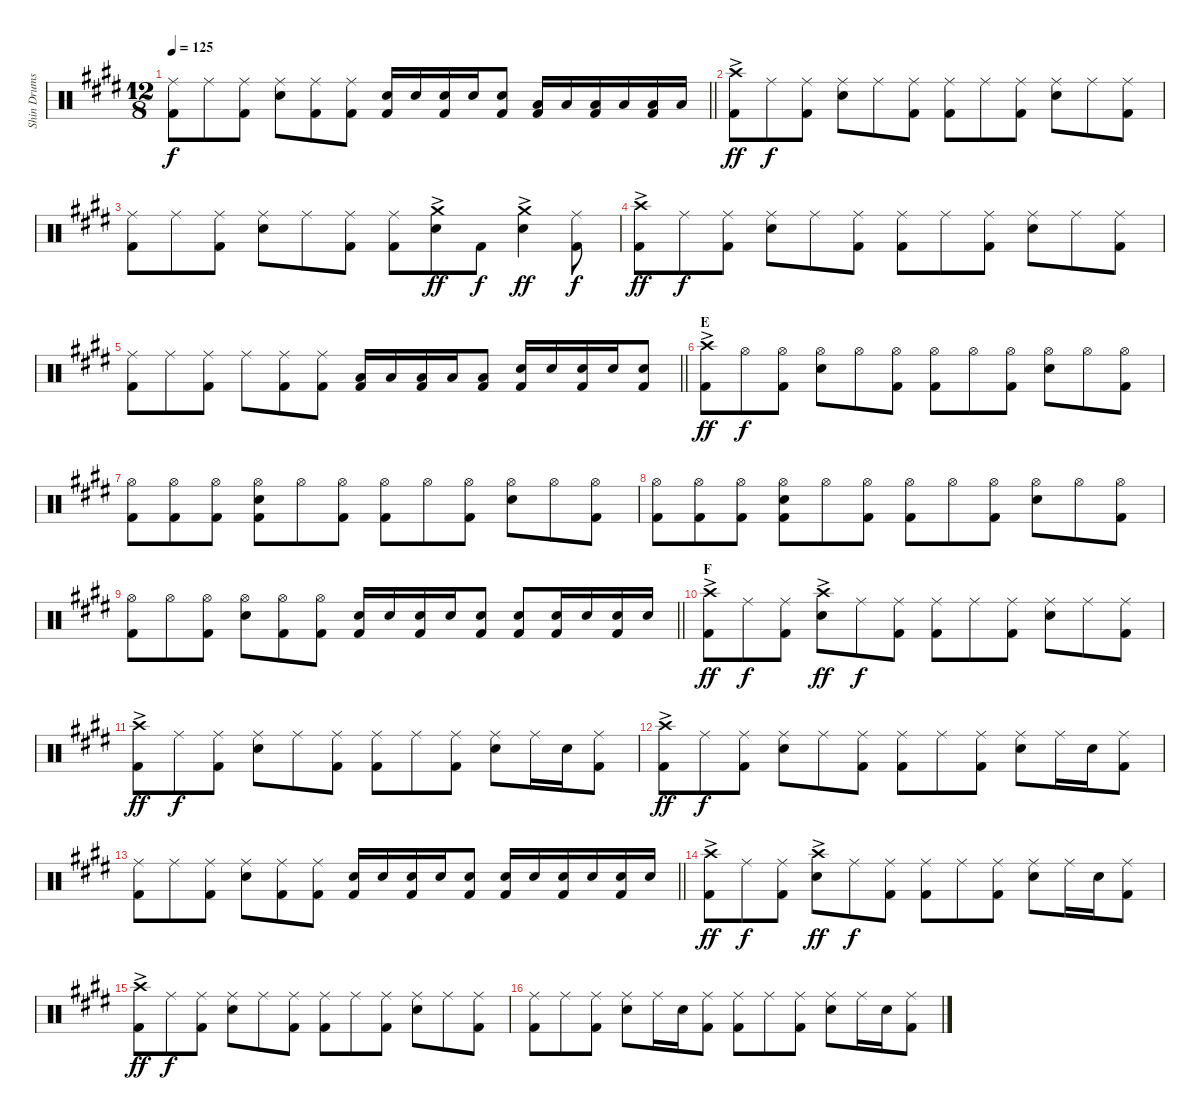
\track ("Shin Drums" "Shin Drums") {instrument percussion}
\staff {score}
\articulation defaults
\ts (12 8)
\tempo 125
\clef neutral
\barLineRight lightlight
\ks e
("Ride (middle)" "Kick (hit) 2").8{dy f} "Ride (middle)".8 ("Ride (middle)" "Kick (hit) 2").8 ("Ride (middle)" "Snare (hit) 2").8 ("Ride (middle)" "Kick (hit) 2").8 ("Ride (middle)" "Kick (hit) 2").8 ("Snare (hit) 2" "Kick (hit) 2").16 "Snare (hit) 2".16 ("Snare (hit) 2" "Kick (hit) 2").16 "Snare (hit) 2".16 ("Snare (hit) 2" "Kick (hit) 2").8 ("Low Tom (hit)" "Kick (hit) 2").16 "Low Tom (hit)".16 ("Low Tom (hit)" "Kick (hit) 2").16 "Low Tom (hit)".16 ("Low Tom (hit)" "Kick (hit) 2").16 "Low Tom (hit)".16 |
("Crash high (hit)"{ac} "Kick (hit) 2").8{dy ff} "Ride (middle)".8{dy f} ("Ride (middle)" "Kick (hit) 2").8 ("Ride (middle)" "Snare (hit) 2").8 "Ride (middle)".8 ("Ride (middle)" "Kick (hit) 2").8 ("Ride (middle)" "Kick (hit) 2").8 "Ride (middle)".8 ("Ride (middle)" "Kick (hit) 2").8 ("Ride (middle)" "Snare (hit) 2").8 "Ride (middle)".8 ("Ride (middle)" "Kick (hit) 2").8 |
("Ride (middle)" "Kick (hit) 2").8 "Ride (middle)".8 ("Ride (middle)" "Kick (hit) 2").8 ("Ride (middle)" "Snare (hit) 2").8 "Ride (middle)".8 ("Ride (middle)" "Kick (hit) 2").8 ("Ride (middle)" "Kick (hit) 2").8 ("Crash medium (hit)"{ac} "Snare (hit) 2").8{dy ff} "Kick (hit) 2".8{dy f} ("Crash medium (hit)"{ac} "Snare (hit) 2").4{dy ff} ("Ride (middle)" "Kick (hit) 2").8{dy f} |
("Crash high (hit)"{ac} "Kick (hit) 2").8{dy ff} "Ride (middle)".8{dy f} ("Ride (middle)" "Kick (hit) 2").8 ("Ride (middle)" "Snare (hit) 2").8 "Ride (middle)".8 ("Ride (middle)" "Kick (hit) 2").8 ("Ride (middle)" "Kick (hit) 2").8 "Ride (middle)".8 ("Ride (middle)" "Kick (hit) 2").8 ("Ride (middle)" "Snare (hit) 2").8 "Ride (middle)".8 ("Ride (middle)" "Kick (hit) 2").8 |
\barLineRight lightlight
("Ride (middle)" "Kick (hit) 2").8 "Ride (middle)".8 ("Ride (middle)" "Kick (hit) 2").8 "Ride (middle)".8 ("Ride (middle)" "Kick (hit) 2").8 ("Ride (middle)" "Kick (hit) 2").8 ("Low Tom (hit)" "Kick (hit) 2").16 "Low Tom (hit)".16 ("Low Tom (hit)" "Kick (hit) 2").16 "Low Tom (hit)".16 ("Low Tom (hit)" "Kick (hit) 2").8 ("Snare (hit) 2" "Kick (hit) 2").16 "Snare (hit) 2".16 ("Snare (hit) 2" "Kick (hit) 2").16 "Snare (hit) 2".16 ("Snare (hit) 2" "Kick (hit) 2").8 |
\section ("" "E")
("Crash high (hit)"{ac} "Kick (hit) 2").8{dy ff} "Hi-Hat (open)".8{dy f} ("Hi-Hat (open)" "Kick (hit) 2").8 ("Hi-Hat (open)" "Snare (hit) 2").8 "Hi-Hat (open)".8 ("Hi-Hat (open)" "Kick (hit) 2").8 ("Hi-Hat (open)" "Kick (hit) 2").8 "Hi-Hat (open)".8 ("Hi-Hat (open)" "Kick (hit) 2").8 ("Hi-Hat (open)" "Snare (hit) 2").8 "Hi-Hat (open)".8 ("Hi-Hat (open)" "Kick (hit) 2").8 |
("Hi-Hat (open)" "Kick (hit) 2").8 ("Hi-Hat (open)" "Kick (hit) 2").8 ("Hi-Hat (open)" "Kick (hit) 2").8 ("Hi-Hat (open)" "Snare (hit) 2" "Kick (hit) 2").8 "Hi-Hat (open)".8 ("Hi-Hat (open)" "Kick (hit) 2").8 ("Hi-Hat (open)" "Kick (hit) 2").8 "Hi-Hat (open)".8 ("Hi-Hat (open)" "Kick (hit) 2").8 ("Hi-Hat (open)" "Snare (hit) 2").8 "Hi-Hat (open)".8 ("Hi-Hat (open)" "Kick (hit) 2").8 |
("Hi-Hat (open)" "Kick (hit) 2").8 ("Hi-Hat (open)" "Kick (hit) 2").8 ("Hi-Hat (open)" "Kick (hit) 2").8 ("Hi-Hat (open)" "Snare (hit) 2" "Kick (hit) 2").8 "Hi-Hat (open)".8 ("Hi-Hat (open)" "Kick (hit) 2").8 ("Hi-Hat (open)" "Kick (hit) 2").8 "Hi-Hat (open)".8 ("Hi-Hat (open)" "Kick (hit) 2").8 ("Hi-Hat (open)" "Snare (hit) 2").8 "Hi-Hat (open)".8 ("Hi-Hat (open)" "Kick (hit) 2").8 |
\barLineRight lightlight
("Hi-Hat (open)" "Kick (hit) 2").8 "Hi-Hat (open)".8 ("Hi-Hat (open)" "Kick (hit) 2").8 ("Hi-Hat (open)" "Snare (hit) 2").8 ("Hi-Hat (open)" "Kick (hit) 2").8 ("Hi-Hat (open)" "Kick (hit) 2").8 ("Snare (hit) 2" "Kick (hit) 2").16 "Snare (hit) 2".16 ("Snare (hit) 2" "Kick (hit) 2").16 "Snare (hit) 2".16 ("Snare (hit) 2" "Kick (hit) 2").8 ("Snare (hit) 2" "Kick (hit) 2").8 ("Snare (hit) 2" "Kick (hit) 2").16 "Snare (hit) 2".16 ("Snare (hit) 2" "Kick (hit) 2").16 "Snare (hit) 2".16 |
\section ("" "F")
("Crash high (hit)"{ac} "Kick (hit) 2").8{dy ff} "Ride (middle)".8{dy f} ("Ride (middle)" "Kick (hit) 2").8 ("Crash high (hit)"{ac} "Snare (hit) 2").8{dy ff} "Ride (middle)".8{dy f} ("Ride (middle)" "Kick (hit) 2").8 ("Ride (middle)" "Kick (hit) 2").8 "Ride (middle)".8 ("Ride (middle)" "Kick (hit) 2").8 ("Ride (middle)" "Snare (hit) 2").8 "Ride (middle)".8 ("Ride (middle)" "Kick (hit) 2").8 |
("Crash high (hit)"{ac} "Kick (hit) 2").8{dy ff} "Ride (middle)".8{dy f} ("Ride (middle)" "Kick (hit) 2").8 ("Ride (middle)" "Snare (hit) 2").8 "Ride (middle)".8 ("Ride (middle)" "Kick (hit) 2").8 ("Ride (middle)" "Kick (hit) 2").8 "Ride (middle)".8 ("Ride (middle)" "Kick (hit) 2").8 ("Ride (middle)" "Snare (hit) 2").8 "Ride (middle)".16 "Snare (hit) 2".16 ("Ride (middle)" "Kick (hit) 2").8 |
("Crash high (hit)"{ac} "Kick (hit) 2").8{dy ff} "Ride (middle)".8{dy f} ("Ride (middle)" "Kick (hit) 2").8 ("Ride (middle)" "Snare (hit) 2").8 "Ride (middle)".8 ("Ride (middle)" "Kick (hit) 2").8 ("Ride (middle)" "Kick (hit) 2").8 "Ride (middle)".8 ("Ride (middle)" "Kick (hit) 2").8 ("Ride (middle)" "Snare (hit) 2").8 "Ride (middle)".16 "Snare (hit) 2".16 ("Ride (middle)" "Kick (hit) 2").8 |
\barLineRight lightlight
("Ride (middle)" "Kick (hit) 2").8 "Ride (middle)".8 ("Ride (middle)" "Kick (hit) 2").8 ("Ride (middle)" "Snare (hit) 2").8 ("Ride (middle)" "Kick (hit) 2").8 ("Ride (middle)" "Kick (hit) 2").8 ("Snare (hit) 2" "Kick (hit) 2").16 "Snare (hit) 2".16 ("Snare (hit) 2" "Kick (hit) 2").16 "Snare (hit) 2".16 ("Snare (hit) 2" "Kick (hit) 2").8 ("Snare (hit) 2" "Kick (hit) 2").16 "Snare (hit) 2".16 ("Snare (hit) 2" "Kick (hit) 2").16 "Snare (hit) 2".16 ("Snare (hit) 2" "Kick (hit) 2").16 "Snare (hit) 2".16 |
("Crash high (hit)"{ac} "Kick (hit) 2").8{dy ff} "Ride (middle)".8{dy f} ("Ride (middle)" "Kick (hit) 2").8 ("Crash high (hit)"{ac} "Snare (hit) 2").8{dy ff} "Ride (middle)".8{dy f} ("Ride (middle)" "Kick (hit) 2").8 ("Ride (middle)" "Kick (hit) 2").8 "Ride (middle)".8 ("Ride (middle)" "Kick (hit) 2").8 ("Ride (middle)" "Snare (hit) 2").8 "Ride (middle)".16 "Snare (hit) 2".16 ("Ride (middle)" "Kick (hit) 2").8 |
("Crash high (hit)"{ac} "Kick (hit) 2").8{dy ff} "Ride (middle)".8{dy f} ("Ride (middle)" "Kick (hit) 2").8 ("Ride (middle)" "Snare (hit) 2").8 "Ride (middle)".8 ("Ride (middle)" "Kick (hit) 2").8 ("Ride (middle)" "Kick (hit) 2").8 "Ride (middle)".8 ("Ride (middle)" "Kick (hit) 2").8 ("Ride (middle)" "Snare (hit) 2").8 "Ride (middle)".8 ("Ride (middle)" "Kick (hit) 2").8 |
("Ride (middle)" "Kick (hit) 2").8 "Ride (middle)".8 ("Ride (middle)" "Kick (hit) 2").8 ("Ride (middle)" "Snare (hit) 2").8 "Ride (middle)".16 "Snare (hit) 2".16 ("Ride (middle)" "Kick (hit) 2").8 ("Ride (middle)" "Kick (hit) 2").8 "Ride (middle)".8 ("Ride (middle)" "Kick (hit) 2").8 ("Ride (middle)" "Snare (hit) 2").8 "Ride (middle)".16 "Snare (hit) 2".16 ("Ride (middle)" "Kick (hit) 2").8
